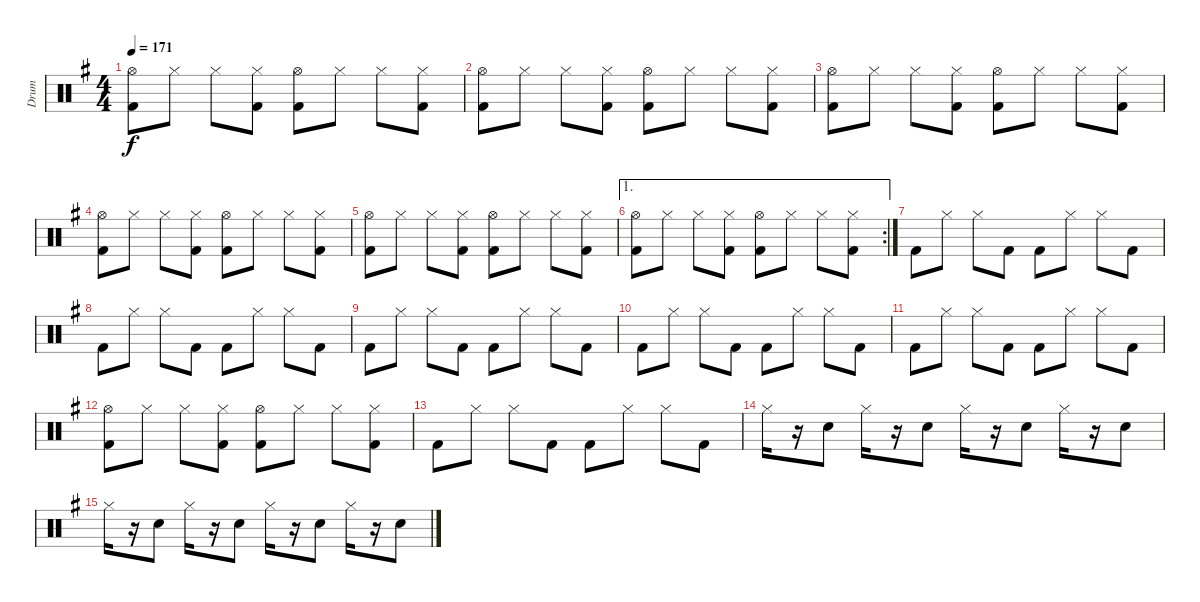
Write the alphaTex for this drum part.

\track ("Drum" "Drum") {instrument percussion}
\staff {score}
\articulation defaults
\ts (4 4)
\tempo 171
\clef neutral
\ks g
("Hi-Hat (open)" "Kick (hit) 2").8{dy f} "Hi-Hat (closed)".8 "Hi-Hat (closed)".8 ("Hi-Hat (closed)" "Kick (hit) 2").8 ("Hi-Hat (open)" "Kick (hit) 2").8 "Hi-Hat (closed)".8 "Hi-Hat (closed)".8 ("Hi-Hat (closed)" "Kick (hit) 2").8 |
("Hi-Hat (open)" "Kick (hit) 2").8 "Hi-Hat (closed)".8 "Hi-Hat (closed)".8 ("Hi-Hat (closed)" "Kick (hit) 2").8 ("Hi-Hat (open)" "Kick (hit) 2").8 "Hi-Hat (closed)".8 "Hi-Hat (closed)".8 ("Hi-Hat (closed)" "Kick (hit) 2").8 |
("Hi-Hat (open)" "Kick (hit) 2").8 "Hi-Hat (closed)".8 "Hi-Hat (closed)".8 ("Hi-Hat (closed)" "Kick (hit) 2").8 ("Hi-Hat (open)" "Kick (hit) 2").8 "Hi-Hat (closed)".8 "Hi-Hat (closed)".8 ("Hi-Hat (closed)" "Kick (hit) 2").8 |
("Hi-Hat (open)" "Kick (hit) 2").8 "Hi-Hat (closed)".8 "Hi-Hat (closed)".8 ("Hi-Hat (closed)" "Kick (hit) 2").8 ("Hi-Hat (open)" "Kick (hit) 2").8 "Hi-Hat (closed)".8 "Hi-Hat (closed)".8 ("Hi-Hat (closed)" "Kick (hit) 2").8 |
("Hi-Hat (open)" "Kick (hit) 2").8 "Hi-Hat (closed)".8 "Hi-Hat (closed)".8 ("Hi-Hat (closed)" "Kick (hit) 2").8 ("Hi-Hat (open)" "Kick (hit) 2").8 "Hi-Hat (closed)".8 "Hi-Hat (closed)".8 ("Hi-Hat (closed)" "Kick (hit) 2").8 |
\ae 1
\rc 2
("Hi-Hat (open)" "Kick (hit) 2").8 "Hi-Hat (closed)".8 "Hi-Hat (closed)".8 ("Hi-Hat (closed)" "Kick (hit) 2").8 ("Hi-Hat (open)" "Kick (hit) 2").8 "Hi-Hat (closed)".8 "Hi-Hat (closed)".8 ("Hi-Hat (closed)" "Kick (hit) 2").8 |
"Kick (hit) 2".8 "Hi-Hat (closed)".8 "Hi-Hat (closed)".8 "Kick (hit) 2".8 "Kick (hit) 2".8 "Hi-Hat (closed)".8 "Hi-Hat (closed)".8 "Kick (hit) 2".8 |
"Kick (hit) 2".8 "Hi-Hat (closed)".8 "Hi-Hat (closed)".8 "Kick (hit) 2".8 "Kick (hit) 2".8 "Hi-Hat (closed)".8 "Hi-Hat (closed)".8 "Kick (hit) 2".8 |
"Kick (hit) 2".8 "Hi-Hat (closed)".8 "Hi-Hat (closed)".8 "Kick (hit) 2".8 "Kick (hit) 2".8 "Hi-Hat (closed)".8 "Hi-Hat (closed)".8 "Kick (hit) 2".8 |
"Kick (hit) 2".8 "Hi-Hat (closed)".8 "Hi-Hat (closed)".8 "Kick (hit) 2".8 "Kick (hit) 2".8 "Hi-Hat (closed)".8 "Hi-Hat (closed)".8 "Kick (hit) 2".8 |
"Kick (hit) 2".8 "Hi-Hat (closed)".8 "Hi-Hat (closed)".8 "Kick (hit) 2".8 "Kick (hit) 2".8 "Hi-Hat (closed)".8 "Hi-Hat (closed)".8 "Kick (hit) 2".8 |
("Hi-Hat (open)" "Kick (hit) 2").8 "Hi-Hat (closed)".8 "Hi-Hat (closed)".8 ("Hi-Hat (closed)" "Kick (hit) 2").8 ("Hi-Hat (open)" "Kick (hit) 2").8 "Hi-Hat (closed)".8 "Hi-Hat (closed)".8 ("Hi-Hat (closed)" "Kick (hit) 2").8 |
"Kick (hit) 2".8 "Hi-Hat (closed)".8 "Hi-Hat (closed)".8 "Kick (hit) 2".8 "Kick (hit) 2".8 "Hi-Hat (closed)".8 "Hi-Hat (closed)".8 "Kick (hit) 2".8 |
"Hi-Hat (closed)".16 r.16 "Snare (hit) 2".8 "Hi-Hat (closed)".16 r.16 "Snare (hit) 2".8 "Hi-Hat (closed)".16 r.16 "Snare (hit) 2".8 "Hi-Hat (closed)".16 r.16 "Snare (hit) 2".8 |
"Hi-Hat (closed)".16 r.16 "Snare (hit) 2".8 "Hi-Hat (closed)".16 r.16 "Snare (hit) 2".8 "Hi-Hat (closed)".16 r.16 "Snare (hit) 2".8 "Hi-Hat (closed)".16 r.16 "Snare (hit) 2".8
